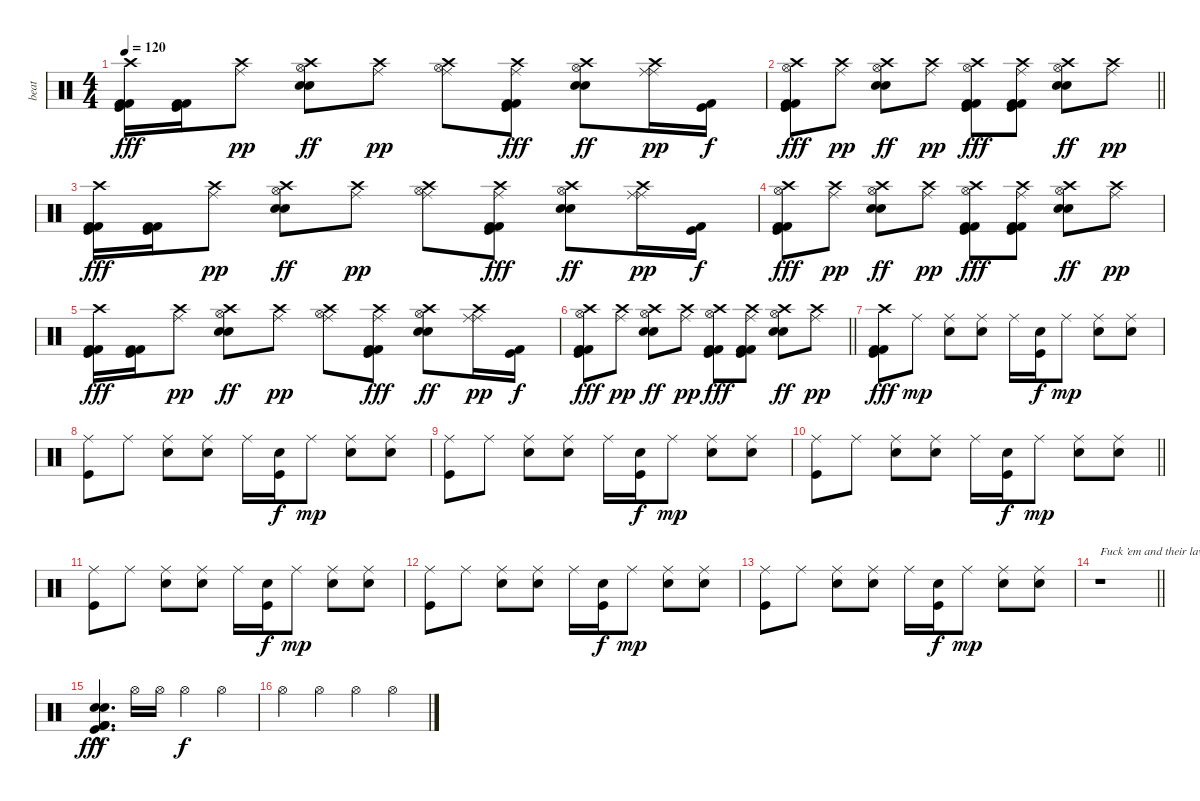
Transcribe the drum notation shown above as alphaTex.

\track ("beat" "beat") {instrument percussion}
\staff {score}
\articulation defaults
\ts (4 4)
\tempo 120
\clef neutral
\ks c
("Crash high (hit)" "Kick (hit) 2" "Kick (hit) 2" "Kick (hit)").16{dy fff} ("Kick (hit) 2" "Kick (hit) 2" "Kick (hit)").16 ("Crash high (hit)" "Ride (middle)").8{dy pp} ("Crash high (hit)" "Hi-Hat (open)" "Snare (hit) 2" "Electric Snare (hit)").8{dy ff} ("Crash high (hit)" "Ride (middle)").8{dy pp} ("Crash high (hit)" "Hi-Hat (open)" "Ride (middle)").8 ("Crash high (hit)" "Ride (middle)" "Kick (hit) 2" "Kick (hit) 2" "Kick (hit)").8{dy fff} ("Crash high (hit)" "Hi-Hat (open)" "Snare (hit) 2" "Electric Snare (hit)").8{dy ff} ("Crash high (hit)" "Ride (middle)" "Ride (middle)").16{dy pp} ("Kick (hit) 2" "Kick (hit)").16{dy f} |
\barLineRight lightlight
("Crash high (hit)" "Hi-Hat (open)" "Kick (hit) 2" "Kick (hit) 2" "Kick (hit)").8{dy fff} ("Crash high (hit)" "Ride (middle)").8{dy pp} ("Crash high (hit)" "Hi-Hat (open)" "Snare (hit) 2" "Electric Snare (hit)").8{dy ff} ("Crash high (hit)" "Ride (middle)").8{dy pp} ("Crash high (hit)" "Hi-Hat (open)" "Kick (hit) 2" "Kick (hit) 2" "Kick (hit)").8{dy fff} ("Crash high (hit)" "Ride (middle)" "Kick (hit) 2" "Kick (hit) 2" "Kick (hit)").8 ("Crash high (hit)" "Hi-Hat (open)" "Snare (hit) 2" "Electric Snare (hit)").8{dy ff} ("Crash high (hit)" "Ride (middle)").8{dy pp} |
("Crash high (hit)" "Kick (hit) 2" "Kick (hit) 2" "Kick (hit)").16{dy fff} ("Kick (hit) 2" "Kick (hit) 2" "Kick (hit)").16 ("Crash high (hit)" "Ride (middle)").8{dy pp} ("Crash high (hit)" "Hi-Hat (open)" "Snare (hit) 2" "Electric Snare (hit)").8{dy ff} ("Crash high (hit)" "Ride (middle)").8{dy pp} ("Crash high (hit)" "Hi-Hat (open)" "Ride (middle)").8 ("Crash high (hit)" "Ride (middle)" "Kick (hit) 2" "Kick (hit) 2" "Kick (hit)").8{dy fff} ("Crash high (hit)" "Hi-Hat (open)" "Snare (hit) 2" "Electric Snare (hit)").8{dy ff} ("Crash high (hit)" "Ride (middle)" "Ride (middle)").16{dy pp} ("Kick (hit) 2" "Kick (hit)").16{dy f} |
("Crash high (hit)" "Hi-Hat (open)" "Kick (hit) 2" "Kick (hit) 2" "Kick (hit)").8{dy fff} ("Crash high (hit)" "Ride (middle)").8{dy pp} ("Crash high (hit)" "Hi-Hat (open)" "Snare (hit) 2" "Electric Snare (hit)").8{dy ff} ("Crash high (hit)" "Ride (middle)").8{dy pp} ("Crash high (hit)" "Hi-Hat (open)" "Kick (hit) 2" "Kick (hit) 2" "Kick (hit)").8{dy fff} ("Crash high (hit)" "Ride (middle)" "Kick (hit) 2" "Kick (hit) 2" "Kick (hit)").8 ("Crash high (hit)" "Hi-Hat (open)" "Snare (hit) 2" "Electric Snare (hit)").8{dy ff} ("Crash high (hit)" "Ride (middle)").8{dy pp} |
("Crash high (hit)" "Kick (hit) 2" "Kick (hit) 2" "Kick (hit)").16{dy fff} ("Kick (hit) 2" "Kick (hit) 2" "Kick (hit)").16 ("Crash high (hit)" "Ride (middle)").8{dy pp} ("Crash high (hit)" "Hi-Hat (open)" "Snare (hit) 2" "Electric Snare (hit)").8{dy ff} ("Crash high (hit)" "Ride (middle)").8{dy pp} ("Crash high (hit)" "Hi-Hat (open)" "Ride (middle)").8 ("Crash high (hit)" "Ride (middle)" "Kick (hit) 2" "Kick (hit) 2" "Kick (hit)").8{dy fff} ("Crash high (hit)" "Hi-Hat (open)" "Snare (hit) 2" "Electric Snare (hit)").8{dy ff} ("Crash high (hit)" "Ride (middle)" "Ride (middle)").16{dy pp} ("Kick (hit) 2" "Kick (hit)").16{dy f} |
\barLineRight lightlight
("Crash high (hit)" "Hi-Hat (open)" "Kick (hit) 2" "Kick (hit) 2" "Kick (hit)").8{dy fff} ("Crash high (hit)" "Ride (middle)").8{dy pp} ("Crash high (hit)" "Hi-Hat (open)" "Snare (hit) 2" "Electric Snare (hit)").8{dy ff} ("Crash high (hit)" "Ride (middle)").8{dy pp} ("Crash high (hit)" "Hi-Hat (open)" "Kick (hit) 2" "Kick (hit) 2" "Kick (hit)").8{dy fff} ("Crash high (hit)" "Ride (middle)" "Kick (hit) 2" "Kick (hit) 2" "Kick (hit)").8 ("Crash high (hit)" "Hi-Hat (open)" "Snare (hit) 2" "Electric Snare (hit)").8{dy ff} ("Crash high (hit)" "Ride (middle)").8{dy pp} |
("Crash high (hit)" "Kick (hit) 2" "Kick (hit) 2" "Kick (hit)").8{dy fff} "Ride (middle)".8{dy mp} ("Ride (middle)" "Snare (hit) 2").8 ("Ride (middle)" "Snare (hit) 2").8 "Ride (middle)".16 ("Kick (hit)" "Snare (hit) 2").16{dy f} "Ride (middle)".8{dy mp} ("Ride (middle)" "Snare (hit) 2").8 ("Ride (middle)" "Snare (hit) 2").8 |
("Ride (middle)" "Kick (hit)").8 "Ride (middle)".8 ("Ride (middle)" "Snare (hit) 2").8 ("Ride (middle)" "Snare (hit) 2").8 "Ride (middle)".16 ("Kick (hit)" "Snare (hit) 2").16{dy f} "Ride (middle)".8{dy mp} ("Ride (middle)" "Snare (hit) 2").8 ("Ride (middle)" "Snare (hit) 2").8 |
("Ride (middle)" "Kick (hit)").8 "Ride (middle)".8 ("Ride (middle)" "Snare (hit) 2").8 ("Ride (middle)" "Snare (hit) 2").8 "Ride (middle)".16 ("Kick (hit)" "Snare (hit) 2").16{dy f} "Ride (middle)".8{dy mp} ("Ride (middle)" "Snare (hit) 2").8 ("Ride (middle)" "Snare (hit) 2").8 |
\barLineRight lightlight
("Ride (middle)" "Kick (hit)").8 "Ride (middle)".8 ("Ride (middle)" "Snare (hit) 2").8 ("Ride (middle)" "Snare (hit) 2").8 "Ride (middle)".16 ("Kick (hit)" "Snare (hit) 2").16{dy f} "Ride (middle)".8{dy mp} ("Ride (middle)" "Snare (hit) 2").8 ("Ride (middle)" "Snare (hit) 2").8 |
("Ride (middle)" "Kick (hit)").8 "Ride (middle)".8 ("Ride (middle)" "Snare (hit) 2").8 ("Ride (middle)" "Snare (hit) 2").8 "Ride (middle)".16 ("Kick (hit)" "Snare (hit) 2").16{dy f} "Ride (middle)".8{dy mp} ("Ride (middle)" "Snare (hit) 2").8 ("Ride (middle)" "Snare (hit) 2").8 |
("Ride (middle)" "Kick (hit)").8 "Ride (middle)".8 ("Ride (middle)" "Snare (hit) 2").8 ("Ride (middle)" "Snare (hit) 2").8 "Ride (middle)".16 ("Kick (hit)" "Snare (hit) 2").16{dy f} "Ride (middle)".8{dy mp} ("Ride (middle)" "Snare (hit) 2").8 ("Ride (middle)" "Snare (hit) 2").8 |
("Ride (middle)" "Kick (hit)").8 "Ride (middle)".8 ("Ride (middle)" "Snare (hit) 2").8 ("Ride (middle)" "Snare (hit) 2").8 "Ride (middle)".16 ("Kick (hit)" "Snare (hit) 2").16{dy f} "Ride (middle)".8{dy mp} ("Ride (middle)" "Snare (hit) 2").8 ("Ride (middle)" "Snare (hit) 2").8 |
\barLineRight lightlight
r.1{txt "Fuck ’em and their law "} |
("Snare (hit) 2"{hac} "Electric Snare (hit)"{hac} "Kick (hit) 2"{hac} "Kick (hit) 2"{hac} "Kick (hit)"{hac}).4{d dy fff} "Hi-Hat (open)".16 "Hi-Hat (open)".16 "Hi-Hat (open)".4{dy f} "Hi-Hat (open)".4 |
"Hi-Hat (open)".4 "Hi-Hat (open)".4 "Hi-Hat (open)".4 "Hi-Hat (open)".4
